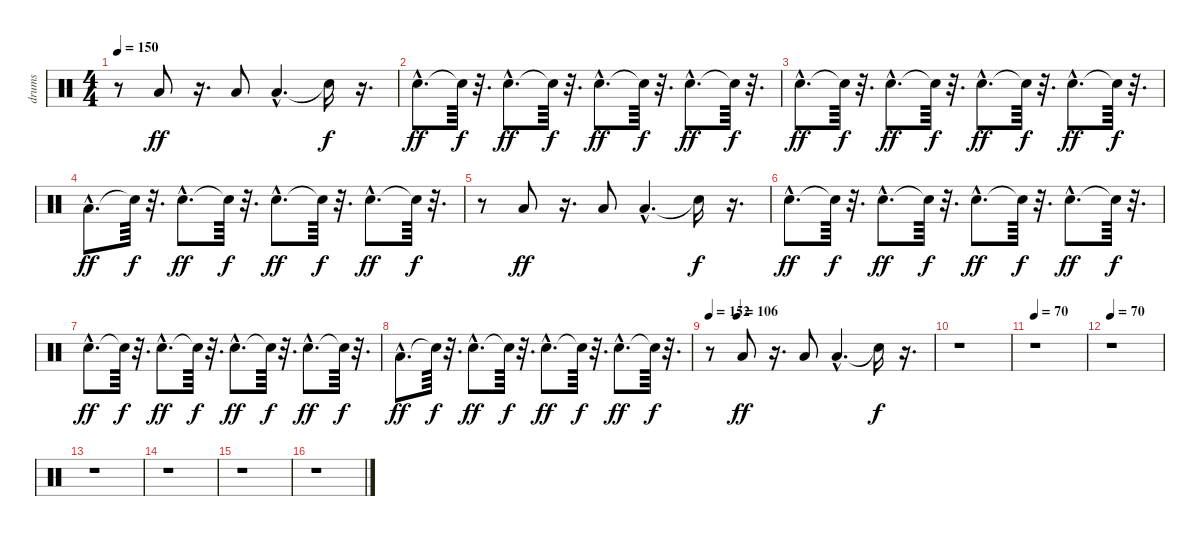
\track ("drums" "drums") {instrument percussion}
\staff {score}
\articulation defaults
\ts (4 4)
\tempo 150
\clef neutral
\ks c
r.8{dy f} "Low Tom (hit)".8{dy ff} r.16{d} "Low Tom (hit)".8 "Low Tom (hit)"{hac}.4{d} "Snare (hit)"{t}.16{dy f} r.16{d} |
"Metronome (bell)"{hac}.8{d dy ff} "Snare (hit)"{t}.64{dy f} r.32{d} "Metronome (bell)"{hac}.8{d dy ff} "Snare (hit)"{t}.64{dy f} r.32{d} "Metronome (bell)"{hac}.8{d dy ff} "Snare (hit)"{t}.64{dy f} r.32{d} "Metronome (bell)"{hac}.8{d dy ff} "Snare (hit)"{t}.64{dy f} r.32{d} |
"Metronome (bell)"{hac}.8{d dy ff} "Snare (hit)"{t}.64{dy f} r.32{d} "Metronome (bell)"{hac}.8{d dy ff} "Snare (hit)"{t}.64{dy f} r.32{d} "Metronome (bell)"{hac}.8{d dy ff} "Snare (hit)"{t}.64{dy f} r.32{d} "Metronome (bell)"{hac}.8{d dy ff} "Snare (hit)"{t}.64{dy f} r.32{d} |
"Low Tom (hit)"{hac}.8{d dy ff} "Snare (hit)"{t}.64{dy f} r.32{d} "Metronome (bell)"{hac}.8{d dy ff} "Snare (hit)"{t}.64{dy f} r.32{d} "Metronome (bell)"{hac}.8{d dy ff} "Snare (hit)"{t}.64{dy f} r.32{d} "Metronome (bell)"{hac}.8{d dy ff} "Snare (hit)"{t}.64{dy f} r.32{d} |
r.8 "Low Tom (hit)".8{dy ff} r.16{d} "Low Tom (hit)".8 "Low Tom (hit)"{hac}.4{d} "Snare (hit)"{t}.16{dy f} r.16{d} |
"Metronome (bell)"{hac}.8{d dy ff} "Snare (hit)"{t}.64{dy f} r.32{d} "Metronome (bell)"{hac}.8{d dy ff} "Snare (hit)"{t}.64{dy f} r.32{d} "Metronome (bell)"{hac}.8{d dy ff} "Snare (hit)"{t}.64{dy f} r.32{d} "Metronome (bell)"{hac}.8{d dy ff} "Snare (hit)"{t}.64{dy f} r.32{d} |
"Metronome (bell)"{hac}.8{d dy ff} "Snare (hit)"{t}.64{dy f} r.32{d} "Metronome (bell)"{hac}.8{d dy ff} "Snare (hit)"{t}.64{dy f} r.32{d} "Metronome (bell)"{hac}.8{d dy ff} "Snare (hit)"{t}.64{dy f} r.32{d} "Metronome (bell)"{hac}.8{d dy ff} "Snare (hit)"{t}.64{dy f} r.32{d} |
"Low Tom (hit)"{hac}.8{d dy ff} "Snare (hit)"{t}.64{dy f} r.32{d} "Metronome (bell)"{hac}.8{d dy ff} "Snare (hit)"{t}.64{dy f} r.32{d} "Metronome (bell)"{hac}.8{d dy ff} "Snare (hit)"{t}.64{dy f} r.32{d} "Metronome (bell)"{hac}.8{d dy ff} "Snare (hit)"{t}.64{dy f} r.32{d} |
\tempo 152
\tempo (106 0.125)
r.8 "Low Tom (hit)".8{dy ff} r.16{d} "Low Tom (hit)".8 "Low Tom (hit)"{hac}.4{d} "Snare (hit)"{t}.16{dy f} r.16{d} |
r.1 |
\tempo 70
r.1 |
\tempo 70
r.1 |
r.1 |
r.1 |
r.1 |
r.1
